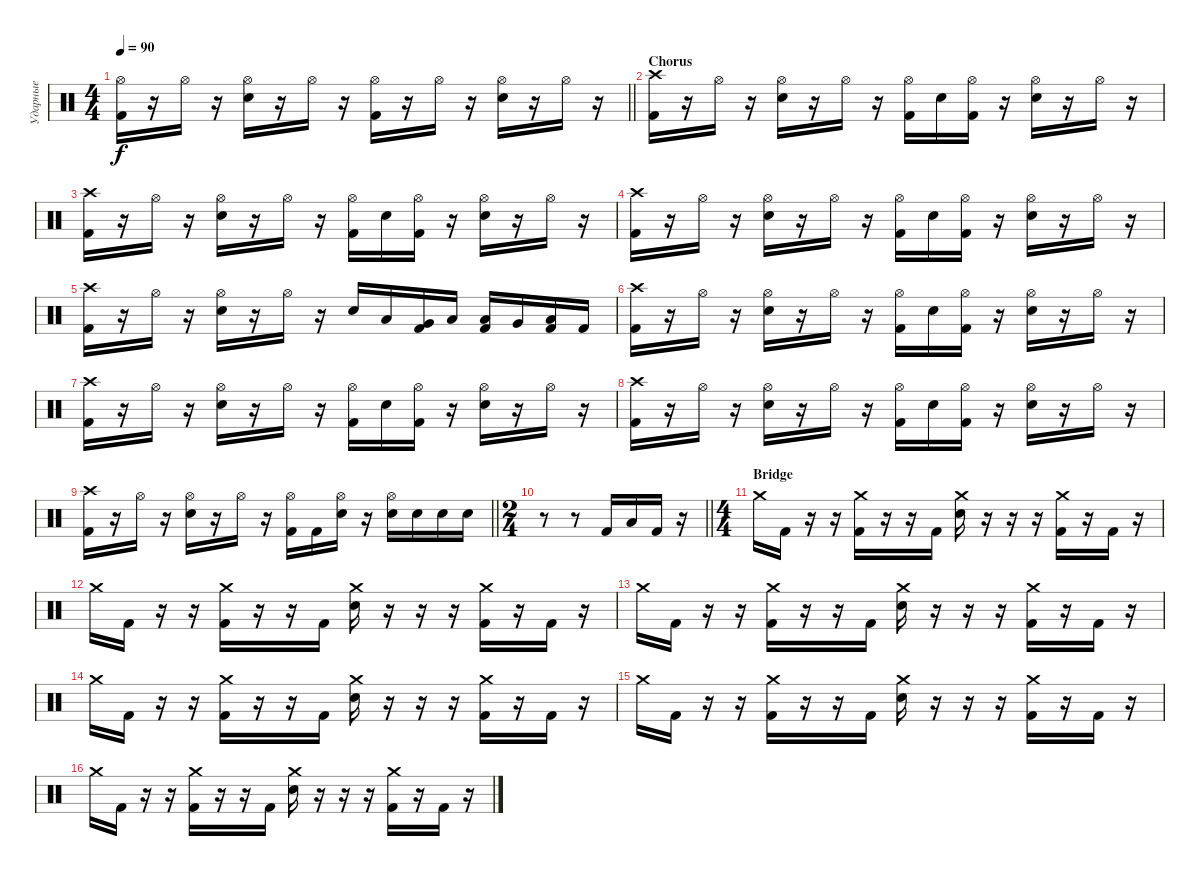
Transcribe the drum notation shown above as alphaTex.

\track ("Ударные" "Ударные") {instrument percussion}
\staff {score}
\articulation defaults
\ts (4 4)
\tempo 90
\clef neutral
\barLineRight lightlight
\ks c
("Hi-Hat (open)" "Kick (hit) 2").16{dy f} r.16 "Hi-Hat (open)".16 r.16 ("Hi-Hat (open)" "Snare (hit) 2").16 r.16 "Hi-Hat (open)".16 r.16 ("Hi-Hat (open)" "Kick (hit) 2").16 r.16 "Hi-Hat (open)".16 r.16 ("Hi-Hat (open)" "Snare (hit) 2").16 r.16 "Hi-Hat (open)".16 r.16 |
\section ("" "Chorus")
("Crash high (hit)" "Kick (hit) 2").16 r.16 "Hi-Hat (open)".16 r.16 ("Hi-Hat (open)" "Snare (hit) 2").16 r.16 "Hi-Hat (open)".16 r.16 ("Hi-Hat (open)" "Kick (hit) 2").16 "Snare (hit) 2".16 ("Hi-Hat (open)" "Kick (hit) 2").16 r.16 ("Hi-Hat (open)" "Snare (hit) 2").16 r.16 "Hi-Hat (open)".16 r.16 |
("Crash high (hit)" "Kick (hit) 2").16 r.16 "Hi-Hat (open)".16 r.16 ("Hi-Hat (open)" "Snare (hit) 2").16 r.16 "Hi-Hat (open)".16 r.16 ("Hi-Hat (open)" "Kick (hit) 2").16 "Snare (hit) 2".16 ("Hi-Hat (open)" "Kick (hit) 2").16 r.16 ("Hi-Hat (open)" "Snare (hit) 2").16 r.16 "Hi-Hat (open)".16 r.16 |
("Crash high (hit)" "Kick (hit) 2").16 r.16 "Hi-Hat (open)".16 r.16 ("Hi-Hat (open)" "Snare (hit) 2").16 r.16 "Hi-Hat (open)".16 r.16 ("Hi-Hat (open)" "Kick (hit) 2").16 "Snare (hit) 2".16 ("Hi-Hat (open)" "Kick (hit) 2").16 r.16 ("Hi-Hat (open)" "Snare (hit) 2").16 r.16 "Hi-Hat (open)".16 r.16 |
("Crash high (hit)" "Kick (hit) 2").16 r.16 "Hi-Hat (open)".16 r.16 ("Hi-Hat (open)" "Snare (hit) 2").16 r.16 "Hi-Hat (open)".16 r.16 "Snare (hit) 2".16 "Low Tom (hit)".16 ("Very Low Tom (hit)" "Kick (hit) 2").16 "Low Floor Tom (hit)".16 ("Low Tom (hit)" "Kick (hit) 2").16 "Very Low Tom (hit)".16 ("Low Floor Tom (hit)" "Kick (hit) 2").16 "Kick (hit) 2".16 |
("Crash high (hit)" "Kick (hit) 2").16 r.16 "Hi-Hat (open)".16 r.16 ("Hi-Hat (open)" "Snare (hit) 2").16 r.16 "Hi-Hat (open)".16 r.16 ("Hi-Hat (open)" "Kick (hit) 2").16 "Snare (hit) 2".16 ("Hi-Hat (open)" "Kick (hit) 2").16 r.16 ("Hi-Hat (open)" "Snare (hit) 2").16 r.16 "Hi-Hat (open)".16 r.16 |
("Crash high (hit)" "Kick (hit) 2").16 r.16 "Hi-Hat (open)".16 r.16 ("Hi-Hat (open)" "Snare (hit) 2").16 r.16 "Hi-Hat (open)".16 r.16 ("Hi-Hat (open)" "Kick (hit) 2").16 "Snare (hit) 2".16 ("Hi-Hat (open)" "Kick (hit) 2").16 r.16 ("Hi-Hat (open)" "Snare (hit) 2").16 r.16 "Hi-Hat (open)".16 r.16 |
("Crash high (hit)" "Kick (hit) 2").16 r.16 "Hi-Hat (open)".16 r.16 ("Hi-Hat (open)" "Snare (hit) 2").16 r.16 "Hi-Hat (open)".16 r.16 ("Hi-Hat (open)" "Kick (hit) 2").16 "Snare (hit) 2".16 ("Hi-Hat (open)" "Kick (hit) 2").16 r.16 ("Hi-Hat (open)" "Snare (hit) 2").16 r.16 "Hi-Hat (open)".16 r.16 |
\barLineRight lightlight
("Crash high (hit)" "Kick (hit) 2").16 r.16 "Hi-Hat (open)".16 r.16 ("Hi-Hat (open)" "Snare (hit) 2").16 r.16 "Hi-Hat (open)".16 r.16 ("Hi-Hat (open)" "Kick (hit) 2").16 "Kick (hit) 2".16 ("Hi-Hat (open)" "Snare (hit) 2").16 r.16 ("Hi-Hat (open)" "Snare (hit) 2").16 "Snare (hit) 2".16 "Snare (hit) 2".16 "Snare (hit) 2".16 |
\ts (2 4)
\barLineRight lightlight
r.8 r.8 "Kick (hit) 2".16 "Low Floor Tom (hit)".16 "Kick (hit) 2".16 r.16 |
\ts (4 4)
\section ("" "Bridge")
"Crash medium (hit)".16 "Kick (hit) 2".16 r.16 r.16 ("Crash medium (hit)" "Kick (hit) 2").16 r.16 r.16 "Kick (hit) 2".16 ("Crash medium (hit)" "Snare (hit) 2").16 r.16 r.16 r.16 ("Crash medium (hit)" "Kick (hit) 2").16 r.16 "Kick (hit) 2".16 r.16 |
"Crash medium (hit)".16 "Kick (hit) 2".16 r.16 r.16 ("Crash medium (hit)" "Kick (hit) 2").16 r.16 r.16 "Kick (hit) 2".16 ("Crash medium (hit)" "Snare (hit) 2").16 r.16 r.16 r.16 ("Crash medium (hit)" "Kick (hit) 2").16 r.16 "Kick (hit) 2".16 r.16 |
"Crash medium (hit)".16 "Kick (hit) 2".16 r.16 r.16 ("Crash medium (hit)" "Kick (hit) 2").16 r.16 r.16 "Kick (hit) 2".16 ("Crash medium (hit)" "Snare (hit) 2").16 r.16 r.16 r.16 ("Crash medium (hit)" "Kick (hit) 2").16 r.16 "Kick (hit) 2".16 r.16 |
"Crash medium (hit)".16 "Kick (hit) 2".16 r.16 r.16 ("Crash medium (hit)" "Kick (hit) 2").16 r.16 r.16 "Kick (hit) 2".16 ("Crash medium (hit)" "Snare (hit) 2").16 r.16 r.16 r.16 ("Crash medium (hit)" "Kick (hit) 2").16 r.16 "Kick (hit) 2".16 r.16 |
"Crash medium (hit)".16 "Kick (hit) 2".16 r.16 r.16 ("Crash medium (hit)" "Kick (hit) 2").16 r.16 r.16 "Kick (hit) 2".16 ("Crash medium (hit)" "Snare (hit) 2").16 r.16 r.16 r.16 ("Crash medium (hit)" "Kick (hit) 2").16 r.16 "Kick (hit) 2".16 r.16 |
"Crash medium (hit)".16 "Kick (hit) 2".16 r.16 r.16 ("Crash medium (hit)" "Kick (hit) 2").16 r.16 r.16 "Kick (hit) 2".16 ("Crash medium (hit)" "Snare (hit) 2").16 r.16 r.16 r.16 ("Crash medium (hit)" "Kick (hit) 2").16 r.16 "Kick (hit) 2".16 r.16
